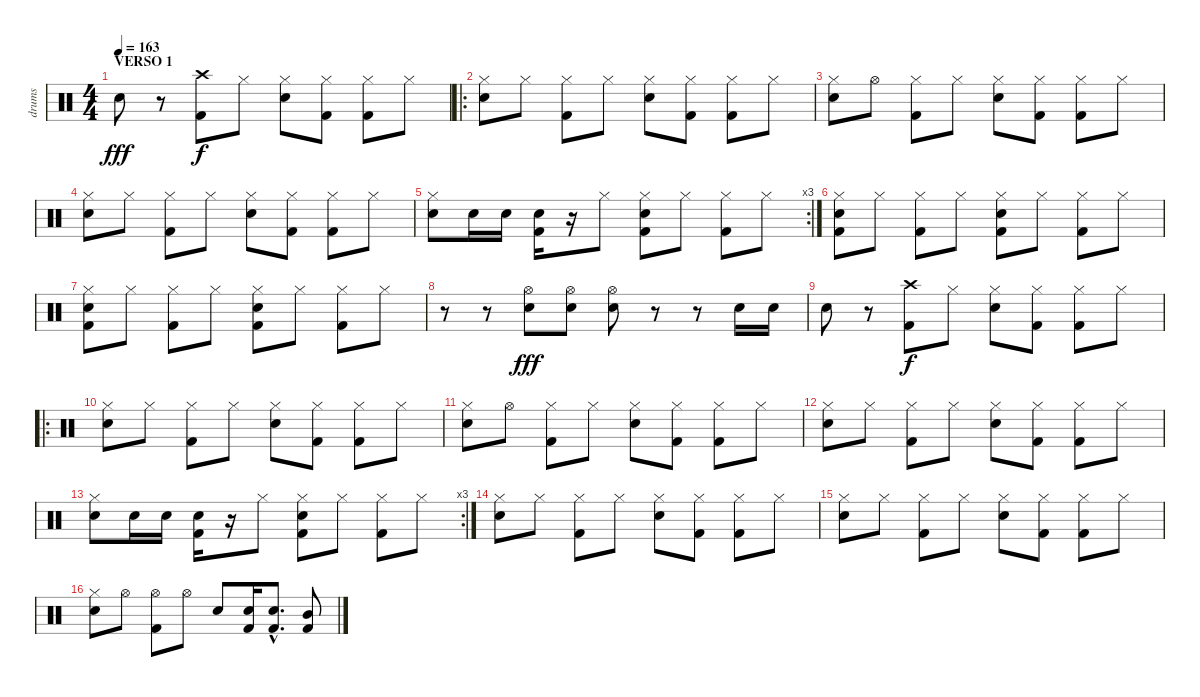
\track ("drums" "drums") {instrument percussion}
\staff {score}
\articulation defaults
\ts (4 4)
\section ("" "VERSO 1")
\tempo 163
\clef neutral
\ks c "Electric Snare (hit)".8{dy fff}
r.8 ("Crash high (hit)" "Kick (hit) 2").8{dy f} "Hi-Hat (closed)".8 ("Hi-Hat (closed)" "Electric Snare (hit)").8 ("Hi-Hat (closed)" "Kick (hit) 2").8 ("Hi-Hat (closed)" "Kick (hit) 2").8 "Hi-Hat (closed)".8 |
\ro
("Hi-Hat (closed)" "Electric Snare (hit)").8 "Hi-Hat (closed)".8 ("Hi-Hat (closed)" "Kick (hit) 2").8 "Hi-Hat (closed)".8 ("Hi-Hat (closed)" "Electric Snare (hit)").8 ("Hi-Hat (closed)" "Kick (hit) 2").8 ("Hi-Hat (closed)" "Kick (hit) 2").8 "Hi-Hat (closed)".8 |
("Hi-Hat (closed)" "Electric Snare (hit)").8 "Hi-Hat (open)".8 ("Hi-Hat (closed)" "Kick (hit) 2").8 "Hi-Hat (closed)".8 ("Hi-Hat (closed)" "Electric Snare (hit)").8 ("Hi-Hat (closed)" "Kick (hit) 2").8 ("Hi-Hat (closed)" "Kick (hit) 2").8 "Hi-Hat (closed)".8 |
("Hi-Hat (closed)" "Electric Snare (hit)").8 "Hi-Hat (closed)".8 ("Hi-Hat (closed)" "Kick (hit) 2").8 "Hi-Hat (closed)".8 ("Hi-Hat (closed)" "Electric Snare (hit)").8 ("Hi-Hat (closed)" "Kick (hit) 2").8 ("Hi-Hat (closed)" "Kick (hit) 2").8 "Hi-Hat (closed)".8 |
\rc 3
("Hi-Hat (closed)" "Electric Snare (hit)").8 "Electric Snare (hit)".16 "Electric Snare (hit)".16 ("Electric Snare (hit)" "Kick (hit) 2").16 r.16 "Hi-Hat (closed)".8 ("Hi-Hat (closed)" "Electric Snare (hit)" "Kick (hit) 2").8 "Hi-Hat (closed)".8 ("Hi-Hat (closed)" "Kick (hit) 2").8 "Hi-Hat (closed)".8 |
("Hi-Hat (closed)" "Electric Snare (hit)" "Kick (hit) 2").8 "Hi-Hat (closed)".8 ("Hi-Hat (closed)" "Kick (hit) 2").8 "Hi-Hat (closed)".8 ("Hi-Hat (closed)" "Electric Snare (hit)" "Kick (hit) 2").8 "Hi-Hat (closed)".8 ("Hi-Hat (closed)" "Kick (hit) 2").8 "Hi-Hat (closed)".8 |
("Hi-Hat (closed)" "Electric Snare (hit)" "Kick (hit) 2").8 "Hi-Hat (closed)".8 ("Hi-Hat (closed)" "Kick (hit) 2").8 "Hi-Hat (closed)".8 ("Hi-Hat (closed)" "Electric Snare (hit)" "Kick (hit) 2").8 "Hi-Hat (closed)".8 ("Hi-Hat (closed)" "Kick (hit) 2").8 "Hi-Hat (closed)".8 |
r.8 r.8 ("Hi-Hat (open)" "Electric Snare (hit)").8{dy fff} ("Hi-Hat (open)" "Electric Snare (hit)").8 ("Hi-Hat (open)" "Electric Snare (hit)").8 r.8 r.8 "Electric Snare (hit)".16 "Electric Snare (hit)".16 |
"Electric Snare (hit)".8 r.8 ("Crash high (hit)" "Kick (hit) 2").8{dy f} "Hi-Hat (closed)".8 ("Hi-Hat (closed)" "Electric Snare (hit)").8 ("Hi-Hat (closed)" "Kick (hit) 2").8 ("Hi-Hat (closed)" "Kick (hit) 2").8 "Hi-Hat (closed)".8 |
\ro
("Hi-Hat (closed)" "Electric Snare (hit)").8 "Hi-Hat (closed)".8 ("Hi-Hat (closed)" "Kick (hit) 2").8 "Hi-Hat (closed)".8 ("Hi-Hat (closed)" "Electric Snare (hit)").8 ("Hi-Hat (closed)" "Kick (hit) 2").8 ("Hi-Hat (closed)" "Kick (hit) 2").8 "Hi-Hat (closed)".8 |
("Hi-Hat (closed)" "Electric Snare (hit)").8 "Hi-Hat (open)".8 ("Hi-Hat (closed)" "Kick (hit) 2").8 "Hi-Hat (closed)".8 ("Hi-Hat (closed)" "Electric Snare (hit)").8 ("Hi-Hat (closed)" "Kick (hit) 2").8 ("Hi-Hat (closed)" "Kick (hit) 2").8 "Hi-Hat (closed)".8 |
("Hi-Hat (closed)" "Electric Snare (hit)").8 "Hi-Hat (closed)".8 ("Hi-Hat (closed)" "Kick (hit) 2").8 "Hi-Hat (closed)".8 ("Hi-Hat (closed)" "Electric Snare (hit)").8 ("Hi-Hat (closed)" "Kick (hit) 2").8 ("Hi-Hat (closed)" "Kick (hit) 2").8 "Hi-Hat (closed)".8 |
\rc 3
("Hi-Hat (closed)" "Electric Snare (hit)").8 "Electric Snare (hit)".16 "Electric Snare (hit)".16 ("Electric Snare (hit)" "Kick (hit) 2").16 r.16 "Hi-Hat (closed)".8 ("Hi-Hat (closed)" "Electric Snare (hit)" "Kick (hit) 2").8 "Hi-Hat (closed)".8 ("Hi-Hat (closed)" "Kick (hit) 2").8 "Hi-Hat (closed)".8 |
("Hi-Hat (closed)" "Electric Snare (hit)").8 "Hi-Hat (closed)".8 ("Hi-Hat (closed)" "Kick (hit) 2").8 "Hi-Hat (closed)".8 ("Hi-Hat (closed)" "Electric Snare (hit)").8 ("Hi-Hat (closed)" "Kick (hit) 2").8 ("Hi-Hat (closed)" "Kick (hit) 2").8 "Hi-Hat (closed)".8 |
("Hi-Hat (closed)" "Electric Snare (hit)").8 "Hi-Hat (closed)".8 ("Hi-Hat (closed)" "Kick (hit) 2").8 "Hi-Hat (closed)".8 ("Hi-Hat (closed)" "Electric Snare (hit)").8 ("Hi-Hat (closed)" "Kick (hit) 2").8 ("Hi-Hat (closed)" "Kick (hit) 2").8 "Hi-Hat (closed)".8 |
("Hi-Hat (closed)" "Electric Snare (hit)").8 "Hi-Hat (open)".8 ("Hi-Hat (open)" "Kick (hit) 2").8 "Hi-Hat (open)".8 "Electric Snare (hit)".8 ("Electric Snare (hit)" "Kick (hit) 2").16 ("Electric Snare (hit)"{hac} "Kick (hit) 2"{hac}).8{d} ("Mid Tom (hit)" "Kick (hit) 2").8
